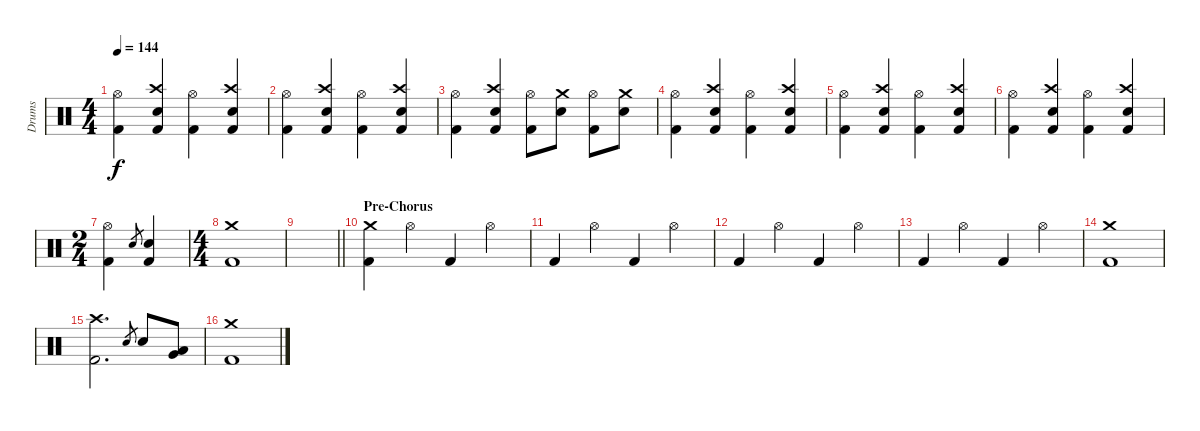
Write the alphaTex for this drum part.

\track ("Drums" "Drums") {instrument percussion}
\staff {score}
\articulation defaults
\ts (4 4)
\tempo 144
\clef neutral
\ks c
("Hi-Hat (open)" "Kick (hit) 2").4{dy f} ("Crash high (hit)" "Electric Snare (hit)" "Kick (hit) 2").4 ("Hi-Hat (open)" "Kick (hit) 2").4 ("Crash high (hit)" "Electric Snare (hit)" "Kick (hit) 2").4 |
("Hi-Hat (open)" "Kick (hit) 2").4 ("Crash high (hit)" "Electric Snare (hit)" "Kick (hit) 2").4 ("Hi-Hat (open)" "Kick (hit) 2").4 ("Crash high (hit)" "Electric Snare (hit)" "Kick (hit) 2").4 |
("Hi-Hat (open)" "Kick (hit) 2").4 ("Crash high (hit)" "Electric Snare (hit)" "Kick (hit) 2").4 ("Hi-Hat (open)" "Kick (hit) 2").8 ("Crash medium (hit)" "Electric Snare (hit)").8 ("Hi-Hat (open)" "Kick (hit) 2").8 ("Crash medium (hit)" "Electric Snare (hit)").8 |
("Hi-Hat (open)" "Kick (hit) 2").4 ("Crash high (hit)" "Electric Snare (hit)" "Kick (hit) 2").4 ("Hi-Hat (open)" "Kick (hit) 2").4 ("Crash high (hit)" "Electric Snare (hit)" "Kick (hit) 2").4 |
("Hi-Hat (open)" "Kick (hit) 2").4 ("Crash high (hit)" "Electric Snare (hit)" "Kick (hit) 2").4 ("Hi-Hat (open)" "Kick (hit) 2").4 ("Crash high (hit)" "Electric Snare (hit)" "Kick (hit) 2").4 |
("Hi-Hat (open)" "Kick (hit) 2").4 ("Crash high (hit)" "Electric Snare (hit)" "Kick (hit) 2").4 ("Hi-Hat (open)" "Kick (hit) 2").4 ("Crash high (hit)" "Electric Snare (hit)" "Kick (hit) 2").4 |
\ts (2 4)
("Hi-Hat (open)" "Kick (hit) 2").4 "Electric Snare (hit)".8{gr} ("Electric Snare (hit)" "Kick (hit) 2").4 |
\ts (4 4)
("Crash medium (hit)" "Kick (hit) 2").1 |
\barLineRight lightlight
|
\section ("" "Pre-Chorus")
("Crash medium (hit)" "Kick (hit) 2").4 "Hi-Hat (open)".4 "Kick (hit) 2".4 "Hi-Hat (open)".4 |
"Kick (hit) 2".4 "Hi-Hat (open)".4 "Kick (hit) 2".4 "Hi-Hat (open)".4 |
"Kick (hit) 2".4 "Hi-Hat (open)".4 "Kick (hit) 2".4 "Hi-Hat (open)".4 |
"Kick (hit) 2".4 "Hi-Hat (open)".4 "Kick (hit) 2".4 "Hi-Hat (open)".4 |
("Crash medium (hit)" "Kick (hit) 2").1 |
("Crash high (hit)" "Kick (hit) 2").2{d} "Electric Snare (hit)".8{gr} "Electric Snare (hit)".8 ("Low Tom (hit)" "Very Low Tom (hit)").8 |
("Crash medium (hit)" "Kick (hit) 2").1
